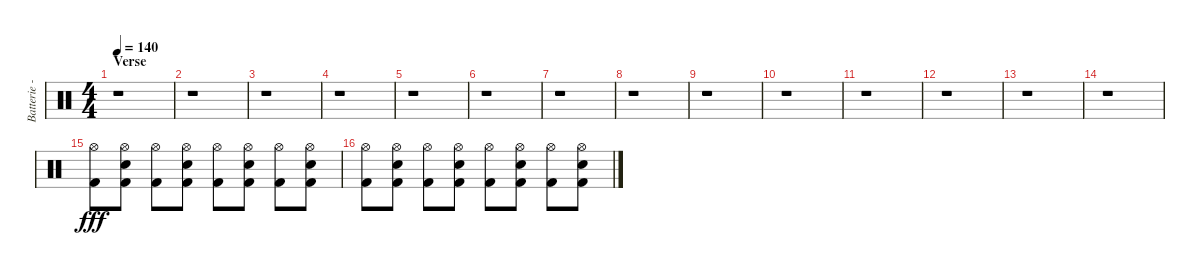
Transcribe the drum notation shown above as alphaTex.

\track ("Batterie - Larzon" "Batterie -") {instrument percussion}
\staff {score}
\articulation defaults
\ts (4 4)
\section ("" "Verse")
\tempo 140
\clef neutral
\ks c
r.1{dy fff} |
r.1 |
r.1 |
r.1 |
r.1 |
r.1 |
r.1 |
r.1 |
r.1 |
r.1 |
r.1 |
r.1 |
r.1 |
r.1 |
("Kick (hit) 2" "Hi-Hat (open)").8 ("Kick (hit) 2" "Hi-Hat (open)" "Electric Snare (hit)").8 ("Kick (hit) 2" "Hi-Hat (open)").8 ("Kick (hit) 2" "Hi-Hat (open)" "Electric Snare (hit)").8 ("Kick (hit) 2" "Hi-Hat (open)").8 ("Kick (hit) 2" "Hi-Hat (open)" "Electric Snare (hit)").8 ("Kick (hit) 2" "Hi-Hat (open)").8 ("Kick (hit) 2" "Hi-Hat (open)" "Electric Snare (hit)").8 |
("Kick (hit) 2" "Hi-Hat (open)").8 ("Kick (hit) 2" "Hi-Hat (open)" "Electric Snare (hit)").8 ("Kick (hit) 2" "Hi-Hat (open)").8 ("Kick (hit) 2" "Hi-Hat (open)" "Electric Snare (hit)").8 ("Kick (hit) 2" "Hi-Hat (open)").8 ("Kick (hit) 2" "Hi-Hat (open)" "Electric Snare (hit)").8 ("Kick (hit) 2" "Hi-Hat (open)").8 ("Kick (hit) 2" "Hi-Hat (open)" "Electric Snare (hit)").8
